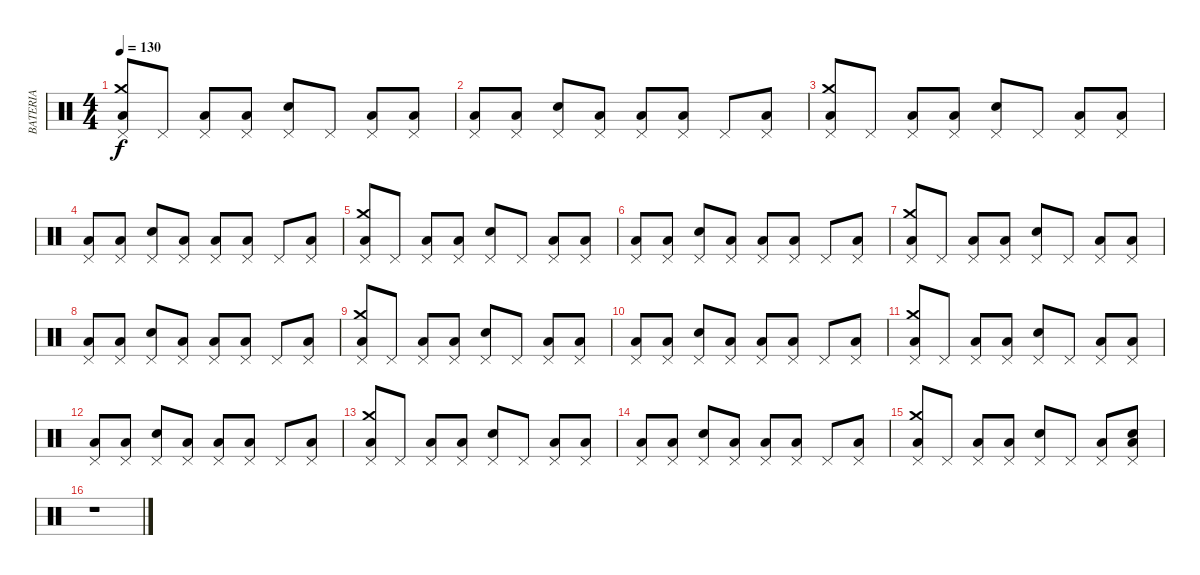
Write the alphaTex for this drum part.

\track ("BATERIA" "BATERIA") {instrument percussion}
\staff {score}
\articulation defaults
\ts (4 4)
\tempo 130
\clef neutral
\ks c
("Low Tom (hit)" "Crash medium (hit)" "Pedal Hi-Hat (hit)").8{dy f} "Pedal Hi-Hat (hit)".8 ("Low Tom (hit)" "Pedal Hi-Hat (hit)").8 ("Low Tom (hit)" "Pedal Hi-Hat (hit)").8 ("Electric Snare (hit)" "Pedal Hi-Hat (hit)").8 "Pedal Hi-Hat (hit)".8 ("Low Tom (hit)" "Pedal Hi-Hat (hit)").8 ("Low Tom (hit)" "Pedal Hi-Hat (hit)").8 |
("Low Tom (hit)" "Pedal Hi-Hat (hit)").8 ("Low Tom (hit)" "Pedal Hi-Hat (hit)").8 ("Electric Snare (hit)" "Pedal Hi-Hat (hit)").8 ("Low Tom (hit)" "Pedal Hi-Hat (hit)").8 ("Low Tom (hit)" "Pedal Hi-Hat (hit)").8 ("Low Tom (hit)" "Pedal Hi-Hat (hit)").8 "Pedal Hi-Hat (hit)".8 ("Low Tom (hit)" "Pedal Hi-Hat (hit)").8 |
("Low Tom (hit)" "Crash medium (hit)" "Pedal Hi-Hat (hit)").8 "Pedal Hi-Hat (hit)".8 ("Low Tom (hit)" "Pedal Hi-Hat (hit)").8 ("Low Tom (hit)" "Pedal Hi-Hat (hit)").8 ("Electric Snare (hit)" "Pedal Hi-Hat (hit)").8 "Pedal Hi-Hat (hit)".8 ("Low Tom (hit)" "Pedal Hi-Hat (hit)").8 ("Low Tom (hit)" "Pedal Hi-Hat (hit)").8 |
("Low Tom (hit)" "Pedal Hi-Hat (hit)").8 ("Low Tom (hit)" "Pedal Hi-Hat (hit)").8 ("Electric Snare (hit)" "Pedal Hi-Hat (hit)").8 ("Low Tom (hit)" "Pedal Hi-Hat (hit)").8 ("Low Tom (hit)" "Pedal Hi-Hat (hit)").8 ("Low Tom (hit)" "Pedal Hi-Hat (hit)").8 "Pedal Hi-Hat (hit)".8 ("Low Tom (hit)" "Pedal Hi-Hat (hit)").8 |
("Low Tom (hit)" "Crash medium (hit)" "Pedal Hi-Hat (hit)").8 "Pedal Hi-Hat (hit)".8 ("Low Tom (hit)" "Pedal Hi-Hat (hit)").8 ("Low Tom (hit)" "Pedal Hi-Hat (hit)").8 ("Electric Snare (hit)" "Pedal Hi-Hat (hit)").8 "Pedal Hi-Hat (hit)".8 ("Low Tom (hit)" "Pedal Hi-Hat (hit)").8 ("Low Tom (hit)" "Pedal Hi-Hat (hit)").8 |
("Low Tom (hit)" "Pedal Hi-Hat (hit)").8 ("Low Tom (hit)" "Pedal Hi-Hat (hit)").8 ("Electric Snare (hit)" "Pedal Hi-Hat (hit)").8 ("Low Tom (hit)" "Pedal Hi-Hat (hit)").8 ("Low Tom (hit)" "Pedal Hi-Hat (hit)").8 ("Low Tom (hit)" "Pedal Hi-Hat (hit)").8 "Pedal Hi-Hat (hit)".8 ("Low Tom (hit)" "Pedal Hi-Hat (hit)").8 |
("Low Tom (hit)" "Crash medium (hit)" "Pedal Hi-Hat (hit)").8 "Pedal Hi-Hat (hit)".8 ("Low Tom (hit)" "Pedal Hi-Hat (hit)").8 ("Low Tom (hit)" "Pedal Hi-Hat (hit)").8 ("Electric Snare (hit)" "Pedal Hi-Hat (hit)").8 "Pedal Hi-Hat (hit)".8 ("Low Tom (hit)" "Pedal Hi-Hat (hit)").8 ("Low Tom (hit)" "Pedal Hi-Hat (hit)").8 |
("Low Tom (hit)" "Pedal Hi-Hat (hit)").8 ("Low Tom (hit)" "Pedal Hi-Hat (hit)").8 ("Electric Snare (hit)" "Pedal Hi-Hat (hit)").8 ("Low Tom (hit)" "Pedal Hi-Hat (hit)").8 ("Low Tom (hit)" "Pedal Hi-Hat (hit)").8 ("Low Tom (hit)" "Pedal Hi-Hat (hit)").8 "Pedal Hi-Hat (hit)".8 ("Low Tom (hit)" "Pedal Hi-Hat (hit)").8 |
("Low Tom (hit)" "Crash medium (hit)" "Pedal Hi-Hat (hit)").8 "Pedal Hi-Hat (hit)".8 ("Low Tom (hit)" "Pedal Hi-Hat (hit)").8 ("Low Tom (hit)" "Pedal Hi-Hat (hit)").8 ("Electric Snare (hit)" "Pedal Hi-Hat (hit)").8 "Pedal Hi-Hat (hit)".8 ("Low Tom (hit)" "Pedal Hi-Hat (hit)").8 ("Low Tom (hit)" "Pedal Hi-Hat (hit)").8 |
("Low Tom (hit)" "Pedal Hi-Hat (hit)").8 ("Low Tom (hit)" "Pedal Hi-Hat (hit)").8 ("Electric Snare (hit)" "Pedal Hi-Hat (hit)").8 ("Low Tom (hit)" "Pedal Hi-Hat (hit)").8 ("Low Tom (hit)" "Pedal Hi-Hat (hit)").8 ("Low Tom (hit)" "Pedal Hi-Hat (hit)").8 "Pedal Hi-Hat (hit)".8 ("Low Tom (hit)" "Pedal Hi-Hat (hit)").8 |
("Low Tom (hit)" "Crash medium (hit)" "Pedal Hi-Hat (hit)").8 "Pedal Hi-Hat (hit)".8 ("Low Tom (hit)" "Pedal Hi-Hat (hit)").8 ("Low Tom (hit)" "Pedal Hi-Hat (hit)").8 ("Electric Snare (hit)" "Pedal Hi-Hat (hit)").8 "Pedal Hi-Hat (hit)".8 ("Low Tom (hit)" "Pedal Hi-Hat (hit)").8 ("Low Tom (hit)" "Pedal Hi-Hat (hit)").8 |
("Low Tom (hit)" "Pedal Hi-Hat (hit)").8 ("Low Tom (hit)" "Pedal Hi-Hat (hit)").8 ("Electric Snare (hit)" "Pedal Hi-Hat (hit)").8 ("Low Tom (hit)" "Pedal Hi-Hat (hit)").8 ("Low Tom (hit)" "Pedal Hi-Hat (hit)").8 ("Low Tom (hit)" "Pedal Hi-Hat (hit)").8 "Pedal Hi-Hat (hit)".8 ("Low Tom (hit)" "Pedal Hi-Hat (hit)").8 |
("Low Tom (hit)" "Crash medium (hit)" "Pedal Hi-Hat (hit)").8 "Pedal Hi-Hat (hit)".8 ("Low Tom (hit)" "Pedal Hi-Hat (hit)").8 ("Low Tom (hit)" "Pedal Hi-Hat (hit)").8 ("Electric Snare (hit)" "Pedal Hi-Hat (hit)").8 "Pedal Hi-Hat (hit)".8 ("Low Tom (hit)" "Pedal Hi-Hat (hit)").8 ("Low Tom (hit)" "Pedal Hi-Hat (hit)").8 |
("Low Tom (hit)" "Pedal Hi-Hat (hit)").8 ("Low Tom (hit)" "Pedal Hi-Hat (hit)").8 ("Electric Snare (hit)" "Pedal Hi-Hat (hit)").8 ("Low Tom (hit)" "Pedal Hi-Hat (hit)").8 ("Low Tom (hit)" "Pedal Hi-Hat (hit)").8 ("Low Tom (hit)" "Pedal Hi-Hat (hit)").8 "Pedal Hi-Hat (hit)".8 ("Low Tom (hit)" "Pedal Hi-Hat (hit)").8 |
("Low Tom (hit)" "Crash medium (hit)" "Pedal Hi-Hat (hit)").8 "Pedal Hi-Hat (hit)".8 ("Low Tom (hit)" "Pedal Hi-Hat (hit)").8 ("Low Tom (hit)" "Pedal Hi-Hat (hit)").8 ("Electric Snare (hit)" "Pedal Hi-Hat (hit)").8 "Pedal Hi-Hat (hit)".8 ("Low Tom (hit)" "Pedal Hi-Hat (hit)").8 ("Low Tom (hit)" "Electric Snare (hit)" "Pedal Hi-Hat (hit)").8 |
r.1
